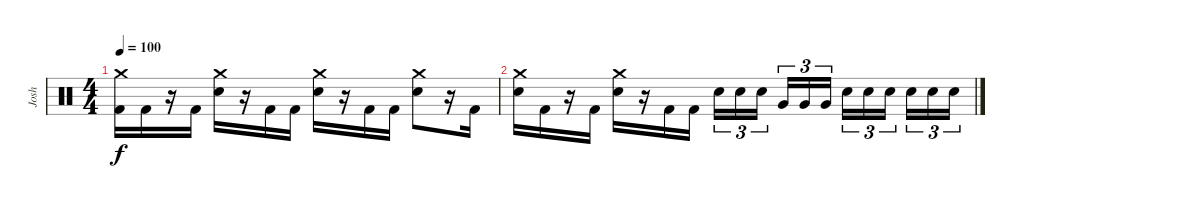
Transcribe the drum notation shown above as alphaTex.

\track ("Josh" "Josh") {instrument percussion}
\staff {score}
\articulation defaults
\ts (4 4)
\tempo 100
\clef neutral
\ks c
("Crash medium (hit)" "Kick (hit) 2").16{dy f} "Kick (hit) 2".16 r.16 "Kick (hit) 2".16 ("Crash medium (hit)" "Snare (hit) 2").16 r.16 "Kick (hit) 2".16 "Kick (hit) 2".16 ("Crash medium (hit)" "Snare (hit) 2").16 r.16 "Kick (hit) 2".16 "Kick (hit) 2".16 ("Crash medium (hit)" "Snare (hit) 2").8 r.16 "Kick (hit) 2".16 |
("Crash medium (hit)" "Snare (hit) 2").16 "Kick (hit) 2".16 r.16 "Kick (hit) 2".16 ("Crash medium (hit)" "Snare (hit) 2").16 r.16 "Kick (hit) 2".16 "Kick (hit) 2".16 "Snare (hit) 2".16{tu (3 2)} "Snare (hit) 2".16{tu (3 2)} "Snare (hit) 2".16{tu (3 2) beam splitsecondary} "Very Low Tom (hit)".16{tu (3 2)} "Very Low Tom (hit)".16{tu (3 2)} "Very Low Tom (hit)".16{tu (3 2)} "Snare (hit) 2".16{tu (3 2)} "Snare (hit) 2".16{tu (3 2)} "Snare (hit) 2".16{tu (3 2) beam splitsecondary} "Snare (hit) 2".16{tu (3 2)} "Snare (hit) 2".16{tu (3 2)} "Snare (hit) 2".16{tu (3 2)}
